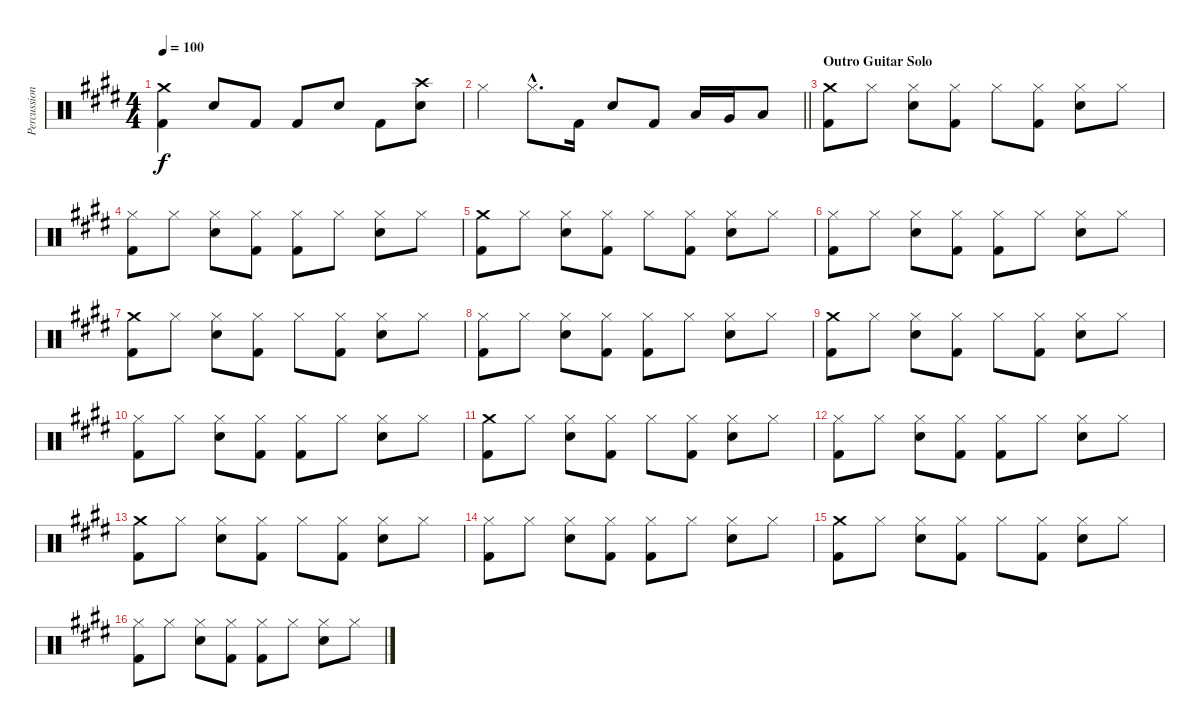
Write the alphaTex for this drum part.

\track ("Percussion" "Percussion") {instrument percussion}
\staff {score}
\articulation defaults
\ts (4 4)
\tempo 100
\clef neutral
\ks c#minor
("Crash medium (hit)" "Kick (hit) 2").4{dy f} "Snare (hit) 2".8 "Kick (hit) 2".8 "Kick (hit) 2".8 "Snare (hit) 2".8 "Kick (hit) 2".8 ("Crash high (hit)" "Snare (hit) 2").8 |
\barLineRight lightlight "Hi-Hat (closed)".4 "Hi-Hat (closed)"{hac}.8{d} "Kick (hit) 2".16 "Snare (hit) 2".8 "Kick (hit) 2".8 "Low Tom (hit)".16 "Very Low Tom (hit)".16 "Low Floor Tom (hit)".8
|
\section ("" "Outro Guitar Solo")
("Crash medium (hit)" "Kick (hit) 2").8 "Hi-Hat (closed)".8 ("Hi-Hat (closed)" "Snare (hit) 2").8 ("Hi-Hat (closed)" "Kick (hit) 2").8 "Hi-Hat (closed)".8 ("Hi-Hat (closed)" "Kick (hit) 2").8 ("Hi-Hat (closed)" "Snare (hit) 2").8 "Hi-Hat (closed)".8 |
("Hi-Hat (closed)" "Kick (hit) 2").8 "Hi-Hat (closed)".8 ("Hi-Hat (closed)" "Snare (hit) 2").8 ("Hi-Hat (closed)" "Kick (hit) 2").8 ("Hi-Hat (closed)" "Kick (hit) 2").8 "Hi-Hat (closed)".8 ("Hi-Hat (closed)" "Snare (hit) 2").8 "Hi-Hat (closed)".8 |
("Crash medium (hit)" "Kick (hit) 2").8 "Hi-Hat (closed)".8 ("Hi-Hat (closed)" "Snare (hit) 2").8 ("Hi-Hat (closed)" "Kick (hit) 2").8 "Hi-Hat (closed)".8 ("Hi-Hat (closed)" "Kick (hit) 2").8 ("Hi-Hat (closed)" "Snare (hit) 2").8 "Hi-Hat (closed)".8 |
("Hi-Hat (closed)" "Kick (hit) 2").8 "Hi-Hat (closed)".8 ("Hi-Hat (closed)" "Snare (hit) 2").8 ("Hi-Hat (closed)" "Kick (hit) 2").8 ("Hi-Hat (closed)" "Kick (hit) 2").8 "Hi-Hat (closed)".8 ("Hi-Hat (closed)" "Snare (hit) 2").8 "Hi-Hat (closed)".8 |
("Crash medium (hit)" "Kick (hit) 2").8 "Hi-Hat (closed)".8 ("Hi-Hat (closed)" "Snare (hit) 2").8 ("Hi-Hat (closed)" "Kick (hit) 2").8 "Hi-Hat (closed)".8 ("Hi-Hat (closed)" "Kick (hit) 2").8 ("Hi-Hat (closed)" "Snare (hit) 2").8 "Hi-Hat (closed)".8 |
("Hi-Hat (closed)" "Kick (hit) 2").8 "Hi-Hat (closed)".8 ("Hi-Hat (closed)" "Snare (hit) 2").8 ("Hi-Hat (closed)" "Kick (hit) 2").8 ("Hi-Hat (closed)" "Kick (hit) 2").8 "Hi-Hat (closed)".8 ("Hi-Hat (closed)" "Snare (hit) 2").8 "Hi-Hat (closed)".8 |
("Crash medium (hit)" "Kick (hit) 2").8 "Hi-Hat (closed)".8 ("Hi-Hat (closed)" "Snare (hit) 2").8 ("Hi-Hat (closed)" "Kick (hit) 2").8 "Hi-Hat (closed)".8 ("Hi-Hat (closed)" "Kick (hit) 2").8 ("Hi-Hat (closed)" "Snare (hit) 2").8 "Hi-Hat (closed)".8 |
("Hi-Hat (closed)" "Kick (hit) 2").8 "Hi-Hat (closed)".8 ("Hi-Hat (closed)" "Snare (hit) 2").8 ("Hi-Hat (closed)" "Kick (hit) 2").8 ("Hi-Hat (closed)" "Kick (hit) 2").8 "Hi-Hat (closed)".8 ("Hi-Hat (closed)" "Snare (hit) 2").8 "Hi-Hat (closed)".8 |
("Crash medium (hit)" "Kick (hit) 2").8 "Hi-Hat (closed)".8 ("Hi-Hat (closed)" "Snare (hit) 2").8 ("Hi-Hat (closed)" "Kick (hit) 2").8 "Hi-Hat (closed)".8 ("Hi-Hat (closed)" "Kick (hit) 2").8 ("Hi-Hat (closed)" "Snare (hit) 2").8 "Hi-Hat (closed)".8 |
("Hi-Hat (closed)" "Kick (hit) 2").8 "Hi-Hat (closed)".8 ("Hi-Hat (closed)" "Snare (hit) 2").8 ("Hi-Hat (closed)" "Kick (hit) 2").8 ("Hi-Hat (closed)" "Kick (hit) 2").8 "Hi-Hat (closed)".8 ("Hi-Hat (closed)" "Snare (hit) 2").8 "Hi-Hat (closed)".8 |
("Crash medium (hit)" "Kick (hit) 2").8 "Hi-Hat (closed)".8 ("Hi-Hat (closed)" "Snare (hit) 2").8 ("Hi-Hat (closed)" "Kick (hit) 2").8 "Hi-Hat (closed)".8 ("Hi-Hat (closed)" "Kick (hit) 2").8 ("Hi-Hat (closed)" "Snare (hit) 2").8 "Hi-Hat (closed)".8 |
("Hi-Hat (closed)" "Kick (hit) 2").8 "Hi-Hat (closed)".8 ("Hi-Hat (closed)" "Snare (hit) 2").8 ("Hi-Hat (closed)" "Kick (hit) 2").8 ("Hi-Hat (closed)" "Kick (hit) 2").8 "Hi-Hat (closed)".8 ("Hi-Hat (closed)" "Snare (hit) 2").8 "Hi-Hat (closed)".8 |
("Crash medium (hit)" "Kick (hit) 2").8 "Hi-Hat (closed)".8 ("Hi-Hat (closed)" "Snare (hit) 2").8 ("Hi-Hat (closed)" "Kick (hit) 2").8 "Hi-Hat (closed)".8 ("Hi-Hat (closed)" "Kick (hit) 2").8 ("Hi-Hat (closed)" "Snare (hit) 2").8 "Hi-Hat (closed)".8 |
("Hi-Hat (closed)" "Kick (hit) 2").8 "Hi-Hat (closed)".8 ("Hi-Hat (closed)" "Snare (hit) 2").8 ("Hi-Hat (closed)" "Kick (hit) 2").8 ("Hi-Hat (closed)" "Kick (hit) 2").8 "Hi-Hat (closed)".8 ("Hi-Hat (closed)" "Snare (hit) 2").8 "Hi-Hat (closed)".8
